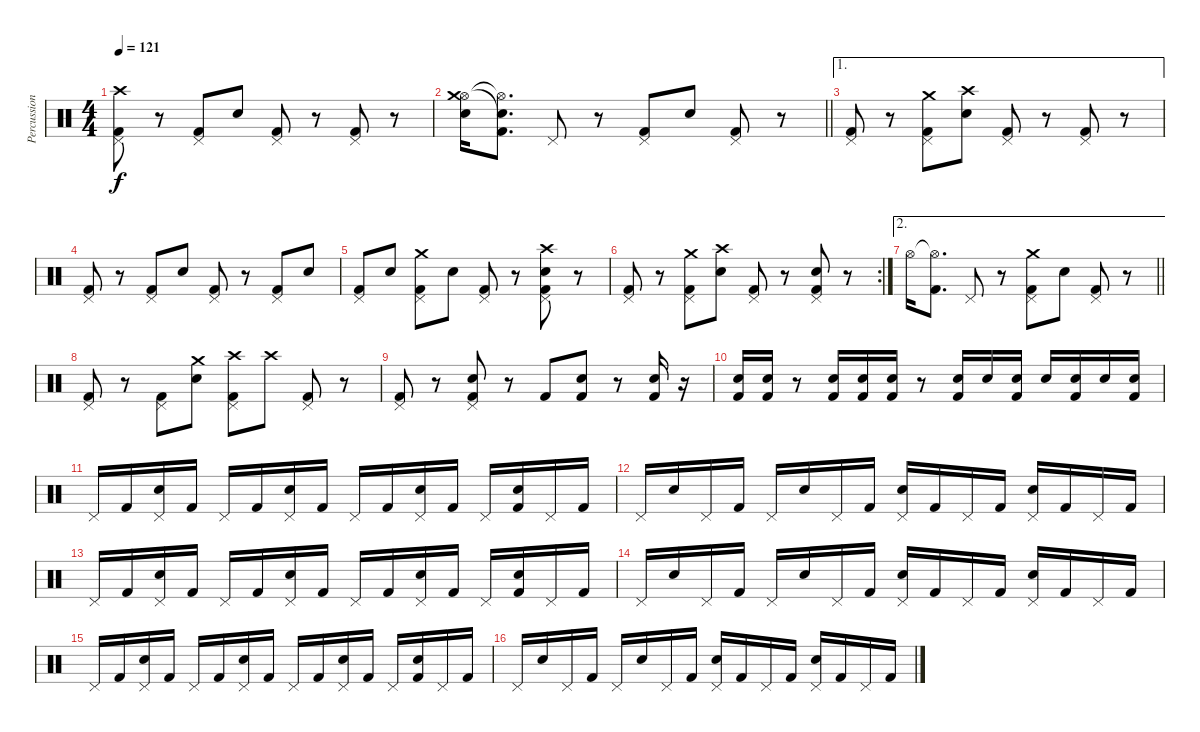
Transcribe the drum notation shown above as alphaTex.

\track ("Percussion" "Percussion") {instrument percussion}
\staff {score}
\articulation defaults
\ts (4 4)
\tempo 121
\clef neutral
\ks c
("Crash high (hit)" "Pedal Hi-Hat (hit)" "Kick (hit) 2").8{dy f} r.8 ("Pedal Hi-Hat (hit)" "Kick (hit) 2").8 "Electric Snare (hit)".8 ("Pedal Hi-Hat (hit)" "Kick (hit) 2").8 r.8 ("Pedal Hi-Hat (hit)" "Kick (hit) 2").8 r.8 |
\barLineRight lightlight
("Hi-Hat (open)" "Crash medium (hit)" "Electric Snare (hit)").16 ("Hi-Hat (open)"{t} "Electric Snare (hit)"{t} "Kick (hit) 2").8{d} "Pedal Hi-Hat (hit)".8 r.8 ("Pedal Hi-Hat (hit)" "Kick (hit) 2").8 "Electric Snare (hit)".8 ("Pedal Hi-Hat (hit)" "Kick (hit) 2").8 r.8 |
\ae 1
("Pedal Hi-Hat (hit)" "Kick (hit) 2").8 r.8 ("Crash medium (hit)" "Pedal Hi-Hat (hit)" "Kick (hit) 2").8 ("Crash high (hit)" "Electric Snare (hit)").8 ("Pedal Hi-Hat (hit)" "Kick (hit) 2").8 r.8 ("Pedal Hi-Hat (hit)" "Kick (hit) 2").8 r.8 |
("Pedal Hi-Hat (hit)" "Kick (hit) 2").8 r.8 ("Pedal Hi-Hat (hit)" "Kick (hit) 2").8 "Electric Snare (hit)".8 ("Pedal Hi-Hat (hit)" "Kick (hit) 2").8 r.8 ("Pedal Hi-Hat (hit)" "Kick (hit) 2").8 "Electric Snare (hit)".8 |
("Pedal Hi-Hat (hit)" "Kick (hit) 2").8 "Electric Snare (hit)".8 ("Crash medium (hit)" "Pedal Hi-Hat (hit)" "Kick (hit) 2").8 "Electric Snare (hit)".8 ("Pedal Hi-Hat (hit)" "Kick (hit) 2").8 r.8 ("Crash high (hit)" "Pedal Hi-Hat (hit)" "Electric Snare (hit)" "Kick (hit) 2").8 r.8 |
\rc 2
("Pedal Hi-Hat (hit)" "Kick (hit) 2").8 r.8 ("Crash medium (hit)" "Pedal Hi-Hat (hit)" "Kick (hit) 2").8 ("Crash high (hit)" "Electric Snare (hit)").8 ("Pedal Hi-Hat (hit)" "Kick (hit) 2").8 r.8 ("Pedal Hi-Hat (hit)" "Electric Snare (hit)" "Kick (hit) 2").8 r.8 |
\ae 2
\barLineRight lightlight "Hi-Hat (open)".16
("Hi-Hat (open)"{t} "Kick (hit) 2").8{d} "Pedal Hi-Hat (hit)".8 r.8 ("Crash medium (hit)" "Pedal Hi-Hat (hit)" "Kick (hit) 2").8 "Electric Snare (hit)".8 ("Pedal Hi-Hat (hit)" "Kick (hit) 2").8 r.8 |
("Pedal Hi-Hat (hit)" "Kick (hit) 2").8 r.8 ("Pedal Hi-Hat (hit)" "Kick (hit) 2").8 ("Crash medium (hit)" "Electric Snare (hit)").8 ("Crash high (hit)" "Pedal Hi-Hat (hit)" "Kick (hit) 2").8 "Crash high (hit)".8 ("Pedal Hi-Hat (hit)" "Kick (hit) 2").8 r.8 |
("Pedal Hi-Hat (hit)" "Kick (hit) 2").8 r.8 ("Pedal Hi-Hat (hit)" "Electric Snare (hit)" "Kick (hit) 2").8 r.8 "Kick (hit) 2".8 ("Electric Snare (hit)" "Kick (hit) 2").8 r.8 ("Electric Snare (hit)" "Kick (hit) 2").16 r.16 |
("Electric Snare (hit)" "Kick (hit) 2").16 ("Electric Snare (hit)" "Kick (hit) 2").16 r.8 ("Electric Snare (hit)" "Kick (hit) 2").16 ("Electric Snare (hit)" "Kick (hit) 2").16 ("Electric Snare (hit)" "Kick (hit) 2").16 r.8 ("Electric Snare (hit)" "Kick (hit) 2").16 "Electric Snare (hit)".16 ("Electric Snare (hit)" "Kick (hit) 2").16 "Electric Snare (hit)".16 ("Electric Snare (hit)" "Kick (hit) 2").16 "Electric Snare (hit)".16 ("Electric Snare (hit)" "Kick (hit) 2").16 |
"Pedal Hi-Hat (hit)".16 "Kick (hit) 2".16 ("Pedal Hi-Hat (hit)" "Electric Snare (hit)").16 "Kick (hit) 2".16 "Pedal Hi-Hat (hit)".16 "Kick (hit) 2".16 ("Pedal Hi-Hat (hit)" "Electric Snare (hit)").16 "Kick (hit) 2".16 "Pedal Hi-Hat (hit)".16 "Kick (hit) 2".16 ("Pedal Hi-Hat (hit)" "Electric Snare (hit)").16 "Kick (hit) 2".16 "Pedal Hi-Hat (hit)".16 ("Electric Snare (hit)" "Kick (hit) 2").16 "Pedal Hi-Hat (hit)".16 "Kick (hit) 2".16 |
"Pedal Hi-Hat (hit)".16 "Electric Snare (hit)".16 "Pedal Hi-Hat (hit)".16 "Kick (hit) 2".16 "Pedal Hi-Hat (hit)".16 "Electric Snare (hit)".16 "Pedal Hi-Hat (hit)".16 "Kick (hit) 2".16 ("Pedal Hi-Hat (hit)" "Electric Snare (hit)").16 "Kick (hit) 2".16 "Pedal Hi-Hat (hit)".16 "Kick (hit) 2".16 ("Pedal Hi-Hat (hit)" "Electric Snare (hit)").16 "Kick (hit) 2".16 "Pedal Hi-Hat (hit)".16 "Kick (hit) 2".16 |
"Pedal Hi-Hat (hit)".16 "Kick (hit) 2".16 ("Pedal Hi-Hat (hit)" "Electric Snare (hit)").16 "Kick (hit) 2".16 "Pedal Hi-Hat (hit)".16 "Kick (hit) 2".16 ("Pedal Hi-Hat (hit)" "Electric Snare (hit)").16 "Kick (hit) 2".16 "Pedal Hi-Hat (hit)".16 "Kick (hit) 2".16 ("Pedal Hi-Hat (hit)" "Electric Snare (hit)").16 "Kick (hit) 2".16 "Pedal Hi-Hat (hit)".16 ("Electric Snare (hit)" "Kick (hit) 2").16 "Pedal Hi-Hat (hit)".16 "Kick (hit) 2".16 |
"Pedal Hi-Hat (hit)".16 "Electric Snare (hit)".16 "Pedal Hi-Hat (hit)".16 "Kick (hit) 2".16 "Pedal Hi-Hat (hit)".16 "Electric Snare (hit)".16 "Pedal Hi-Hat (hit)".16 "Kick (hit) 2".16 ("Pedal Hi-Hat (hit)" "Electric Snare (hit)").16 "Kick (hit) 2".16 "Pedal Hi-Hat (hit)".16 "Kick (hit) 2".16 ("Pedal Hi-Hat (hit)" "Electric Snare (hit)").16 "Kick (hit) 2".16 "Pedal Hi-Hat (hit)".16 "Kick (hit) 2".16 |
"Pedal Hi-Hat (hit)".16 "Kick (hit) 2".16 ("Pedal Hi-Hat (hit)" "Electric Snare (hit)").16 "Kick (hit) 2".16 "Pedal Hi-Hat (hit)".16 "Kick (hit) 2".16 ("Pedal Hi-Hat (hit)" "Electric Snare (hit)").16 "Kick (hit) 2".16 "Pedal Hi-Hat (hit)".16 "Kick (hit) 2".16 ("Pedal Hi-Hat (hit)" "Electric Snare (hit)").16 "Kick (hit) 2".16 "Pedal Hi-Hat (hit)".16 ("Electric Snare (hit)" "Kick (hit) 2").16 "Pedal Hi-Hat (hit)".16 "Kick (hit) 2".16 |
"Pedal Hi-Hat (hit)".16 "Electric Snare (hit)".16 "Pedal Hi-Hat (hit)".16 "Kick (hit) 2".16 "Pedal Hi-Hat (hit)".16 "Electric Snare (hit)".16 "Pedal Hi-Hat (hit)".16 "Kick (hit) 2".16 ("Pedal Hi-Hat (hit)" "Electric Snare (hit)").16 "Kick (hit) 2".16 "Pedal Hi-Hat (hit)".16 "Kick (hit) 2".16 ("Pedal Hi-Hat (hit)" "Electric Snare (hit)").16 "Kick (hit) 2".16 "Pedal Hi-Hat (hit)".16 "Kick (hit) 2".16
